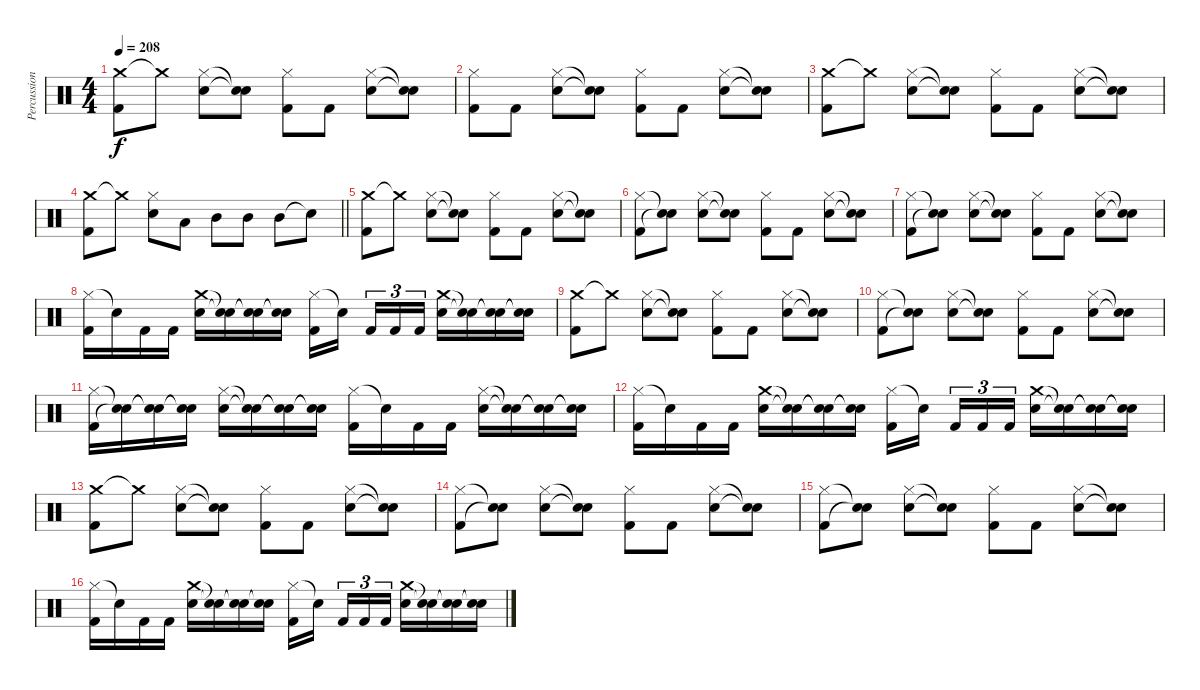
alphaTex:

\track ("Percussion" "Percussion") {instrument percussion}
\staff {score}
\articulation defaults
\ts (4 4)
\tempo 208
\clef neutral
\ks c
("Crash medium (hit)" "Kick (hit) 2").8{dy f} "Crash medium (hit)"{t}.8 ("Hi-Hat (closed)" "Snare (hit) 2").8 ("Snare (hit)"{t} "Snare (hit)"{t}).8 ("Hi-Hat (closed)" "Kick (hit) 2").8 "Kick (hit) 2".8 ("Hi-Hat (closed)" "Snare (hit) 2").8 ("Snare (hit)"{t} "Snare (hit)"{t}).8 |
("Hi-Hat (closed)" "Kick (hit) 2").8 "Kick (hit) 2".8 ("Hi-Hat (closed)" "Snare (hit) 2").8 ("Snare (hit)"{t} "Snare (hit)"{t}).8 ("Hi-Hat (closed)" "Kick (hit) 2").8 "Kick (hit) 2".8 ("Hi-Hat (closed)" "Snare (hit) 2").8 ("Snare (hit)"{t} "Snare (hit)"{t}).8 |
("Crash medium (hit)" "Kick (hit) 2").8 "Crash medium (hit)"{t}.8 ("Hi-Hat (closed)" "Snare (hit) 2").8 ("Snare (hit)"{t} "Snare (hit)"{t}).8 ("Hi-Hat (closed)" "Kick (hit) 2").8 "Kick (hit) 2".8 ("Hi-Hat (closed)" "Snare (hit) 2").8 ("Snare (hit)"{t} "Snare (hit)"{t}).8 |
\barLineRight lightlight
("Crash medium (hit)" "Kick (hit) 2").8 "Crash medium (hit)"{t}.8 ("Hi-Hat (closed)" "Snare (hit) 2").8 "Low Tom (hit)".8 "Mid Tom (hit)".8 "Mid Tom (hit)".8 "Mid Tom (hit)".8 "Snare (hit)"{t}.8 |
("Crash medium (hit)" "Kick (hit) 2").8 "Crash medium (hit)"{t}.8 ("Hi-Hat (closed)" "Snare (hit) 2").8 ("Snare (hit)"{t} "Snare (hit)"{t}).8 ("Hi-Hat (closed)" "Kick (hit) 2").8 "Kick (hit) 2".8 ("Hi-Hat (closed)" "Snare (hit) 2").8 ("Snare (hit)"{t} "Snare (hit)"{t}).8 |
("Hi-Hat (closed)" "Kick (hit) 2").8 ("Snare (hit)"{t} "Snare (hit)"{t}).8 ("Hi-Hat (closed)" "Snare (hit) 2").8 ("Snare (hit)"{t} "Snare (hit)"{t}).8 ("Hi-Hat (closed)" "Kick (hit) 2").8 "Kick (hit) 2".8 ("Hi-Hat (closed)" "Snare (hit) 2").8 ("Snare (hit)"{t} "Snare (hit)"{t}).8 |
("Hi-Hat (closed)" "Kick (hit) 2").8 ("Snare (hit)"{t} "Snare (hit)"{t}).8 ("Hi-Hat (closed)" "Snare (hit) 2").8 ("Snare (hit)"{t} "Snare (hit)"{t}).8 ("Hi-Hat (closed)" "Kick (hit) 2").8 "Kick (hit) 2".8 ("Hi-Hat (closed)" "Snare (hit) 2").8 ("Snare (hit)"{t} "Snare (hit)"{t}).8 |
("Hi-Hat (closed)" "Kick (hit) 2").16 "Snare (hit)"{t}.16 "Kick (hit) 2".16 "Kick (hit) 2".16 ("Crash medium (hit)" "Snare (hit) 2").16 ("Snare (hit)"{t} "Snare (hit)"{t}).16 ("Snare (hit)"{t} "Snare (hit)"{t}).16 ("Snare (hit)"{t} "Snare (hit)"{t}).16 ("Hi-Hat (closed)" "Kick (hit) 2").16 "Snare (hit)"{t}.16{beam splitsecondary} "Kick (hit) 2".16{tu (3 2)} "Kick (hit) 2".16{tu (3 2)} "Kick (hit) 2".16{tu (3 2)} ("Crash medium (hit)" "Snare (hit) 2").16 ("Snare (hit)"{t} "Snare (hit)"{t}).16 ("Snare (hit)"{t} "Snare (hit)"{t}).16 ("Snare (hit)"{t} "Snare (hit)"{t}).16 |
("Crash medium (hit)" "Kick (hit) 2").8 "Crash medium (hit)"{t}.8 ("Hi-Hat (closed)" "Snare (hit) 2").8 ("Snare (hit)"{t} "Snare (hit)"{t}).8 ("Hi-Hat (closed)" "Kick (hit) 2").8 "Kick (hit) 2".8 ("Hi-Hat (closed)" "Snare (hit) 2").8 ("Snare (hit)"{t} "Snare (hit)"{t}).8 |
("Hi-Hat (closed)" "Kick (hit) 2").8 ("Snare (hit)"{t} "Snare (hit)"{t}).8 ("Hi-Hat (closed)" "Snare (hit) 2").8 ("Snare (hit)"{t} "Snare (hit)"{t}).8 ("Hi-Hat (closed)" "Kick (hit) 2").8 "Kick (hit) 2".8 ("Hi-Hat (closed)" "Snare (hit) 2").8 ("Snare (hit)"{t} "Snare (hit)"{t}).8 |
("Hi-Hat (closed)" "Kick (hit) 2").16 ("Snare (hit)"{t} "Snare (hit)"{t}).16 ("Snare (hit)"{t} "Snare (hit)"{t}).16 ("Snare (hit)"{t} "Snare (hit)"{t}).16 ("Hi-Hat (closed)" "Snare (hit) 2").16 ("Snare (hit)"{t} "Snare (hit)"{t}).16 ("Snare (hit)"{t} "Snare (hit)"{t}).16 ("Snare (hit)"{t} "Snare (hit)"{t}).16 ("Hi-Hat (closed)" "Kick (hit) 2").16 "Snare (hit)"{t}.16 "Kick (hit) 2".16 "Kick (hit) 2".16 ("Hi-Hat (closed)" "Snare (hit) 2").16 ("Snare (hit)"{t} "Snare (hit)"{t}).16 ("Snare (hit)"{t} "Snare (hit)"{t}).16 ("Snare (hit)"{t} "Snare (hit)"{t}).16 |
("Hi-Hat (closed)" "Kick (hit) 2").16 "Snare (hit)"{t}.16 "Kick (hit) 2".16 "Kick (hit) 2".16 ("Crash medium (hit)" "Snare (hit) 2").16 ("Snare (hit)"{t} "Snare (hit)"{t}).16 ("Snare (hit)"{t} "Snare (hit)"{t}).16 ("Snare (hit)"{t} "Snare (hit)"{t}).16 ("Hi-Hat (closed)" "Kick (hit) 2").16 "Snare (hit)"{t}.16{beam splitsecondary} "Kick (hit) 2".16{tu (3 2)} "Kick (hit) 2".16{tu (3 2)} "Kick (hit) 2".16{tu (3 2)} ("Crash medium (hit)" "Snare (hit) 2").16 ("Snare (hit)"{t} "Snare (hit)"{t}).16 ("Snare (hit)"{t} "Snare (hit)"{t}).16 ("Snare (hit)"{t} "Snare (hit)"{t}).16 |
("Crash medium (hit)" "Kick (hit) 2").8 "Crash medium (hit)"{t}.8 ("Hi-Hat (closed)" "Snare (hit) 2").8 ("Snare (hit)"{t} "Snare (hit)"{t}).8 ("Hi-Hat (closed)" "Kick (hit) 2").8 "Kick (hit) 2".8 ("Hi-Hat (closed)" "Snare (hit) 2").8 ("Snare (hit)"{t} "Snare (hit)"{t}).8 |
("Hi-Hat (closed)" "Kick (hit) 2").8 ("Snare (hit)"{t} "Snare (hit)"{t}).8 ("Hi-Hat (closed)" "Snare (hit) 2").8 ("Snare (hit)"{t} "Snare (hit)"{t}).8 ("Hi-Hat (closed)" "Kick (hit) 2").8 "Kick (hit) 2".8 ("Hi-Hat (closed)" "Snare (hit) 2").8 ("Snare (hit)"{t} "Snare (hit)"{t}).8 |
("Hi-Hat (closed)" "Kick (hit) 2").8 ("Snare (hit)"{t} "Snare (hit)"{t}).8 ("Hi-Hat (closed)" "Snare (hit) 2").8 ("Snare (hit)"{t} "Snare (hit)"{t}).8 ("Hi-Hat (closed)" "Kick (hit) 2").8 "Kick (hit) 2".8 ("Hi-Hat (closed)" "Snare (hit) 2").8 ("Snare (hit)"{t} "Snare (hit)"{t}).8 |
("Hi-Hat (closed)" "Kick (hit) 2").16 "Snare (hit)"{t}.16 "Kick (hit) 2".16 "Kick (hit) 2".16 ("Crash medium (hit)" "Snare (hit) 2").16 ("Snare (hit)"{t} "Snare (hit)"{t}).16 ("Snare (hit)"{t} "Snare (hit)"{t}).16 ("Snare (hit)"{t} "Snare (hit)"{t}).16 ("Hi-Hat (closed)" "Kick (hit) 2").16 "Snare (hit)"{t}.16{beam splitsecondary} "Kick (hit) 2".16{tu (3 2)} "Kick (hit) 2".16{tu (3 2)} "Kick (hit) 2".16{tu (3 2)} ("Crash medium (hit)" "Snare (hit) 2").16 ("Snare (hit)"{t} "Snare (hit)"{t}).16 ("Snare (hit)"{t} "Snare (hit)"{t}).16 ("Snare (hit)"{t} "Snare (hit)"{t}).16
